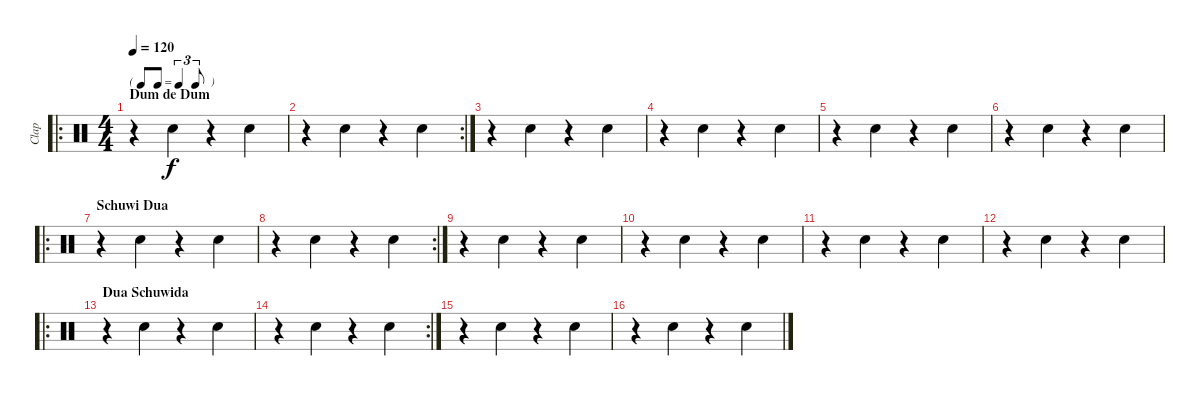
\track ("Clap" "Clap") {instrument percussion}
\staff {score}
\articulation defaults
\ro
\ts (4 4)
\tf triplet8th
\section ("" "Dum de Dum")
\tempo 120
\clef neutral
\ks c
r.4{dy f} "Hand Clap (hit)".4 r.4 "Hand Clap (hit)".4 |
\rc 2
r.4 "Hand Clap (hit)".4 r.4 "Hand Clap (hit)".4 |
r.4 "Hand Clap (hit)".4 r.4 "Hand Clap (hit)".4 |
r.4 "Hand Clap (hit)".4 r.4 "Hand Clap (hit)".4 |
r.4 "Hand Clap (hit)".4 r.4 "Hand Clap (hit)".4 |
r.4 "Hand Clap (hit)".4 r.4 "Hand Clap (hit)".4 |
\ro
\section ("" "Schuwi Dua")
r.4 "Hand Clap (hit)".4 r.4 "Hand Clap (hit)".4 |
\rc 2
r.4 "Hand Clap (hit)".4 r.4 "Hand Clap (hit)".4 |
r.4 "Hand Clap (hit)".4 r.4 "Hand Clap (hit)".4 |
r.4 "Hand Clap (hit)".4 r.4 "Hand Clap (hit)".4 |
r.4 "Hand Clap (hit)".4 r.4 "Hand Clap (hit)".4 |
r.4 "Hand Clap (hit)".4 r.4 "Hand Clap (hit)".4 |
\ro
\section ("" "Dua Schuwida")
r.4 "Hand Clap (hit)".4 r.4 "Hand Clap (hit)".4 |
\rc 2
r.4 "Hand Clap (hit)".4 r.4 "Hand Clap (hit)".4 |
r.4 "Hand Clap (hit)".4 r.4 "Hand Clap (hit)".4 |
r.4 "Hand Clap (hit)".4 r.4 "Hand Clap (hit)".4
